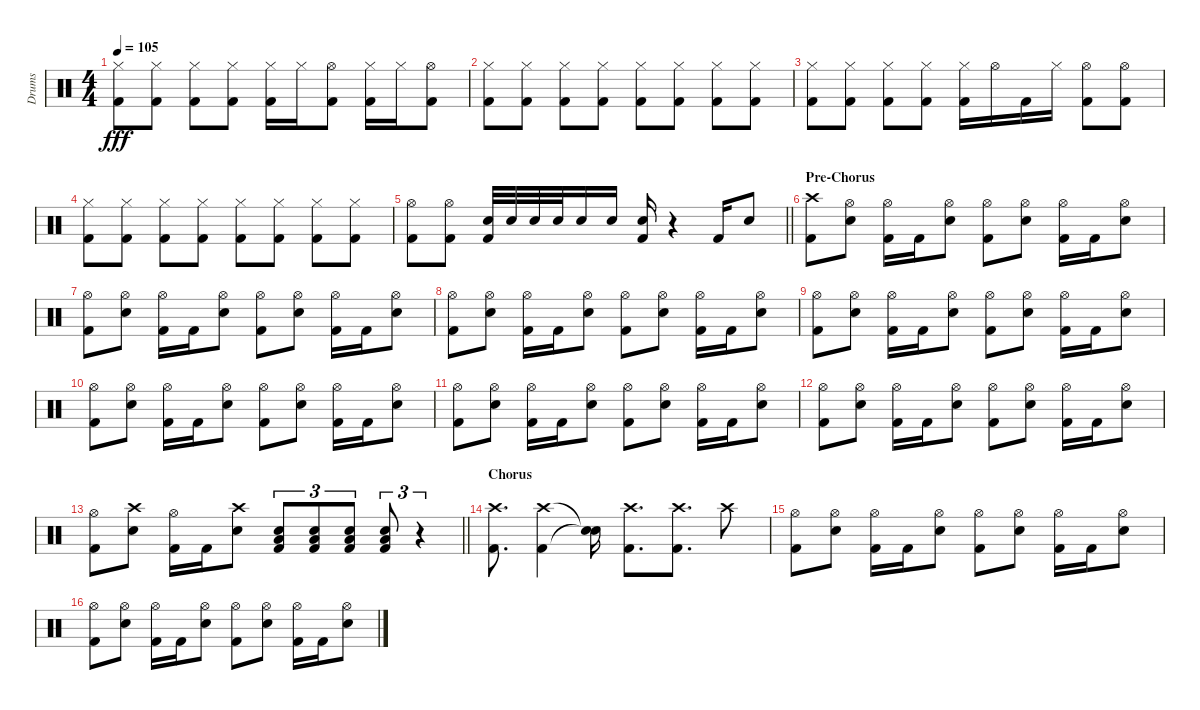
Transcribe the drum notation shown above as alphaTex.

\track ("Drums" "Drums") {instrument percussion}
\staff {score}
\articulation defaults
\ts (4 4)
\tempo 105
\clef neutral
\ks c
("Hi-Hat (closed)" "Kick (hit) 2").8{dy fff} ("Hi-Hat (closed)" "Kick (hit) 2").8 ("Hi-Hat (closed)" "Kick (hit) 2").8 ("Hi-Hat (closed)" "Kick (hit) 2").8 ("Hi-Hat (closed)" "Kick (hit) 2").16 "Hi-Hat (closed)".16 ("Hi-Hat (open)" "Kick (hit) 2").8 ("Hi-Hat (closed)" "Kick (hit) 2").16 "Hi-Hat (closed)".16 ("Hi-Hat (open)" "Kick (hit) 2").8 |
("Hi-Hat (closed)" "Kick (hit) 2").8 ("Hi-Hat (closed)" "Kick (hit) 2").8 ("Hi-Hat (closed)" "Kick (hit) 2").8 ("Hi-Hat (closed)" "Kick (hit) 2").8 ("Hi-Hat (closed)" "Kick (hit) 2").8 ("Hi-Hat (closed)" "Kick (hit) 2").8 ("Hi-Hat (closed)" "Kick (hit) 2").8 ("Hi-Hat (closed)" "Kick (hit) 2").8 |
("Hi-Hat (closed)" "Kick (hit) 2").8 ("Hi-Hat (closed)" "Kick (hit) 2").8 ("Hi-Hat (closed)" "Kick (hit) 2").8 ("Hi-Hat (closed)" "Kick (hit) 2").8 ("Hi-Hat (closed)" "Kick (hit) 2").16 "Hi-Hat (open)".16 "Kick (hit) 2".16 "Hi-Hat (closed)".16 ("Hi-Hat (open)" "Kick (hit) 2").8 ("Hi-Hat (open)" "Kick (hit) 2").8 |
("Hi-Hat (closed)" "Kick (hit) 2").8 ("Hi-Hat (closed)" "Kick (hit) 2").8 ("Hi-Hat (closed)" "Kick (hit) 2").8 ("Hi-Hat (closed)" "Kick (hit) 2").8 ("Hi-Hat (closed)" "Kick (hit) 2").8 ("Hi-Hat (closed)" "Kick (hit) 2").8 ("Hi-Hat (closed)" "Kick (hit) 2").8 ("Hi-Hat (closed)" "Kick (hit) 2").8 |
\barLineRight lightlight
("Hi-Hat (open)" "Kick (hit) 2").8 ("Hi-Hat (open)" "Kick (hit) 2").8 ("Electric Snare (hit)" "Kick (hit) 2").32 "Electric Snare (hit)".32 "Electric Snare (hit)".32 "Electric Snare (hit)".32 "Electric Snare (hit)".16 "Electric Snare (hit)".16 ("Electric Snare (hit)" "Kick (hit) 2").16 r.4 "Kick (hit) 2".16 "Electric Snare (hit)".8 |
\section ("" "Pre-Chorus")
("Crash high (hit)" "Kick (hit) 2").8 ("Hi-Hat (open)" "Electric Snare (hit)").8 ("Hi-Hat (open)" "Kick (hit) 2").16 "Kick (hit) 2".16 ("Hi-Hat (open)" "Electric Snare (hit)").8 ("Hi-Hat (open)" "Kick (hit) 2").8 ("Hi-Hat (open)" "Electric Snare (hit)").8 ("Hi-Hat (open)" "Kick (hit) 2").16 "Kick (hit) 2".16 ("Hi-Hat (open)" "Electric Snare (hit)").8 |
("Hi-Hat (open)" "Kick (hit) 2").8 ("Hi-Hat (open)" "Electric Snare (hit)").8 ("Hi-Hat (open)" "Kick (hit) 2").16 "Kick (hit) 2".16 ("Hi-Hat (open)" "Electric Snare (hit)").8 ("Hi-Hat (open)" "Kick (hit) 2").8 ("Hi-Hat (open)" "Electric Snare (hit)").8 ("Hi-Hat (open)" "Kick (hit) 2").16 "Kick (hit) 2".16 ("Hi-Hat (open)" "Electric Snare (hit)").8 |
("Hi-Hat (open)" "Kick (hit) 2").8 ("Hi-Hat (open)" "Electric Snare (hit)").8 ("Hi-Hat (open)" "Kick (hit) 2").16 "Kick (hit) 2".16 ("Hi-Hat (open)" "Electric Snare (hit)").8 ("Hi-Hat (open)" "Kick (hit) 2").8 ("Hi-Hat (open)" "Electric Snare (hit)").8 ("Hi-Hat (open)" "Kick (hit) 2").16 "Kick (hit) 2".16 ("Hi-Hat (open)" "Electric Snare (hit)").8 |
("Hi-Hat (open)" "Kick (hit) 2").8 ("Hi-Hat (open)" "Electric Snare (hit)").8 ("Hi-Hat (open)" "Kick (hit) 2").16 "Kick (hit) 2".16 ("Hi-Hat (open)" "Electric Snare (hit)").8 ("Hi-Hat (open)" "Kick (hit) 2").8 ("Hi-Hat (open)" "Electric Snare (hit)").8 ("Hi-Hat (open)" "Kick (hit) 2").16 "Kick (hit) 2".16 ("Hi-Hat (open)" "Electric Snare (hit)").8 |
("Hi-Hat (open)" "Kick (hit) 2").8 ("Hi-Hat (open)" "Electric Snare (hit)").8 ("Hi-Hat (open)" "Kick (hit) 2").16 "Kick (hit) 2".16 ("Hi-Hat (open)" "Electric Snare (hit)").8 ("Hi-Hat (open)" "Kick (hit) 2").8 ("Hi-Hat (open)" "Electric Snare (hit)").8 ("Hi-Hat (open)" "Kick (hit) 2").16 "Kick (hit) 2".16 ("Hi-Hat (open)" "Electric Snare (hit)").8 |
("Hi-Hat (open)" "Kick (hit) 2").8 ("Hi-Hat (open)" "Electric Snare (hit)").8 ("Hi-Hat (open)" "Kick (hit) 2").16 "Kick (hit) 2".16 ("Hi-Hat (open)" "Electric Snare (hit)").8 ("Hi-Hat (open)" "Kick (hit) 2").8 ("Hi-Hat (open)" "Electric Snare (hit)").8 ("Hi-Hat (open)" "Kick (hit) 2").16 "Kick (hit) 2".16 ("Hi-Hat (open)" "Electric Snare (hit)").8 |
("Hi-Hat (open)" "Kick (hit) 2").8 ("Hi-Hat (open)" "Electric Snare (hit)").8 ("Hi-Hat (open)" "Kick (hit) 2").16 "Kick (hit) 2".16 ("Hi-Hat (open)" "Electric Snare (hit)").8 ("Hi-Hat (open)" "Kick (hit) 2").8 ("Hi-Hat (open)" "Electric Snare (hit)").8 ("Hi-Hat (open)" "Kick (hit) 2").16 "Kick (hit) 2".16 ("Hi-Hat (open)" "Electric Snare (hit)").8 |
\barLineRight lightlight
("Hi-Hat (open)" "Kick (hit) 2").8 ("Crash high (hit)" "Electric Snare (hit)").8 ("Hi-Hat (open)" "Kick (hit) 2").16 "Kick (hit) 2".16 ("Crash high (hit)" "Electric Snare (hit)").8 ("Low Floor Tom (hit)" "Electric Snare (hit)" "Kick (hit) 2").8{tu (3 2)} ("Low Floor Tom (hit)" "Electric Snare (hit)" "Kick (hit) 2").8{tu (3 2)} ("Low Floor Tom (hit)" "Electric Snare (hit)" "Kick (hit) 2").8{tu (3 2)} ("Low Floor Tom (hit)" "Electric Snare (hit)" "Kick (hit) 2").8{tu (3 2)} r.4{tu (3 2)} |
\section ("" "Chorus")
("Crash high (hit)" "Kick (hit) 2").8{d} ("Crash high (hit)" "Kick (hit) 2").4 ("Snare (hit)"{t} "Snare (hit)"{t}).16 ("Crash high (hit)" "Kick (hit) 2").8{d} ("Crash high (hit)" "Kick (hit) 2").8{d} "Crash high (hit)".8 |
("Hi-Hat (open)" "Kick (hit) 2").8 ("Hi-Hat (open)" "Electric Snare (hit)").8 ("Hi-Hat (open)" "Kick (hit) 2").16 "Kick (hit) 2".16 ("Hi-Hat (open)" "Electric Snare (hit)").8 ("Hi-Hat (open)" "Kick (hit) 2").8 ("Hi-Hat (open)" "Electric Snare (hit)").8 ("Hi-Hat (open)" "Kick (hit) 2").16 "Kick (hit) 2".16 ("Hi-Hat (open)" "Electric Snare (hit)").8 |
("Hi-Hat (open)" "Kick (hit) 2").8 ("Hi-Hat (open)" "Electric Snare (hit)").8 ("Hi-Hat (open)" "Kick (hit) 2").16 "Kick (hit) 2".16 ("Hi-Hat (open)" "Electric Snare (hit)").8 ("Hi-Hat (open)" "Kick (hit) 2").8 ("Hi-Hat (open)" "Electric Snare (hit)").8 ("Hi-Hat (open)" "Kick (hit) 2").16 "Kick (hit) 2".16 ("Hi-Hat (open)" "Electric Snare (hit)").8
